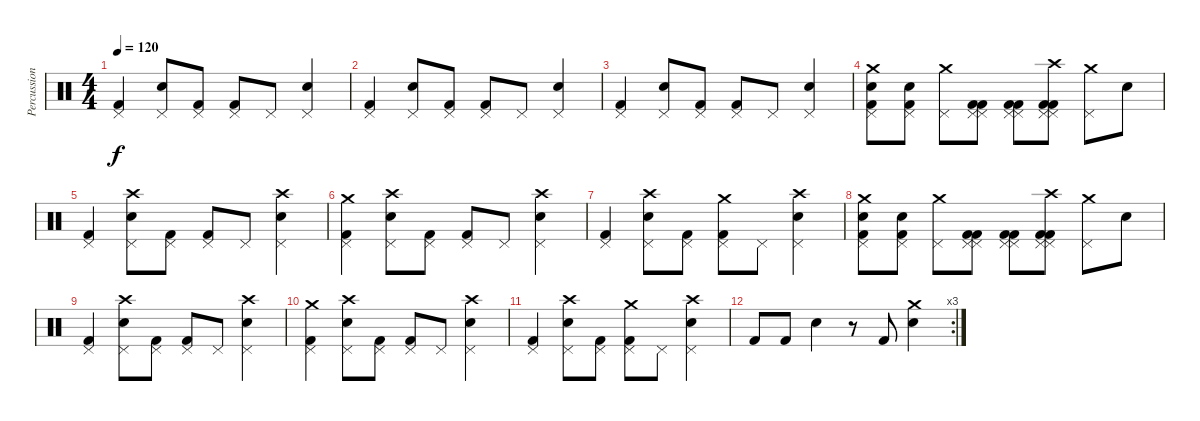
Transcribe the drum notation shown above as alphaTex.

\track ("Percussion" "Percussion") {instrument percussion}
\staff {score}
\articulation defaults
\ts (4 4)
\tempo 120
\clef neutral
\ks c
("Pedal Hi-Hat (hit)" "Kick (hit) 2").4{dy f} ("Pedal Hi-Hat (hit)" "Electric Snare (hit)").8 ("Pedal Hi-Hat (hit)" "Kick (hit) 2").8 ("Pedal Hi-Hat (hit)" "Kick (hit) 2").8 "Pedal Hi-Hat (hit)".8 ("Pedal Hi-Hat (hit)" "Electric Snare (hit)").4 |
("Pedal Hi-Hat (hit)" "Kick (hit) 2").4 ("Pedal Hi-Hat (hit)" "Electric Snare (hit)").8 ("Pedal Hi-Hat (hit)" "Kick (hit) 2").8 ("Pedal Hi-Hat (hit)" "Kick (hit) 2").8 "Pedal Hi-Hat (hit)".8 ("Pedal Hi-Hat (hit)" "Electric Snare (hit)").4 |
("Pedal Hi-Hat (hit)" "Kick (hit) 2").4 ("Pedal Hi-Hat (hit)" "Electric Snare (hit)").8 ("Pedal Hi-Hat (hit)" "Kick (hit) 2").8 ("Pedal Hi-Hat (hit)" "Kick (hit) 2").8 "Pedal Hi-Hat (hit)".8 ("Pedal Hi-Hat (hit)" "Electric Snare (hit)").4 |
("Pedal Hi-Hat (hit)" "Crash medium (hit)" "Electric Snare (hit)" "Kick (hit) 2").8 ("Pedal Hi-Hat (hit)" "Electric Snare (hit)" "Kick (hit) 2").8 ("Pedal Hi-Hat (hit)" "Crash medium (hit)").8 ("Pedal Hi-Hat (hit)" "Pedal Hi-Hat (hit)" "Kick (hit) 2" "Kick (hit) 2").8 ("Pedal Hi-Hat (hit)" "Pedal Hi-Hat (hit)" "Kick (hit) 2" "Kick (hit) 2").8 ("Pedal Hi-Hat (hit)" "Crash high (hit)" "Pedal Hi-Hat (hit)" "Kick (hit) 2" "Kick (hit) 2").8 ("Pedal Hi-Hat (hit)" "Crash medium (hit)").8 "Snare (hit)"{x}.8 |
("Pedal Hi-Hat (hit)" "Kick (hit) 2").4 ("Pedal Hi-Hat (hit)" "Crash high (hit)" "Electric Snare (hit)").8 ("Pedal Hi-Hat (hit)" "Kick (hit) 2").8 ("Pedal Hi-Hat (hit)" "Kick (hit) 2").8 "Pedal Hi-Hat (hit)".8 ("Pedal Hi-Hat (hit)" "Electric Snare (hit)" "Crash high (hit)").4 |
("Pedal Hi-Hat (hit)" "Crash medium (hit)" "Kick (hit) 2").4 ("Pedal Hi-Hat (hit)" "Crash high (hit)" "Electric Snare (hit)").8 ("Pedal Hi-Hat (hit)" "Kick (hit) 2").8 ("Pedal Hi-Hat (hit)" "Kick (hit) 2").8 "Pedal Hi-Hat (hit)".8 ("Pedal Hi-Hat (hit)" "Electric Snare (hit)" "Crash high (hit)").4 |
("Pedal Hi-Hat (hit)" "Kick (hit) 2").4 ("Pedal Hi-Hat (hit)" "Crash high (hit)" "Electric Snare (hit)").8 ("Pedal Hi-Hat (hit)" "Kick (hit) 2").8 ("Pedal Hi-Hat (hit)" "Crash medium (hit)" "Kick (hit) 2").8 "Pedal Hi-Hat (hit)".8 ("Pedal Hi-Hat (hit)" "Electric Snare (hit)" "Crash high (hit)").4 |
("Pedal Hi-Hat (hit)" "Crash medium (hit)" "Electric Snare (hit)" "Kick (hit) 2").8 ("Pedal Hi-Hat (hit)" "Electric Snare (hit)" "Kick (hit) 2").8 ("Pedal Hi-Hat (hit)" "Crash medium (hit)").8 ("Pedal Hi-Hat (hit)" "Pedal Hi-Hat (hit)" "Kick (hit) 2" "Kick (hit) 2").8 ("Pedal Hi-Hat (hit)" "Pedal Hi-Hat (hit)" "Kick (hit) 2" "Kick (hit) 2").8 ("Pedal Hi-Hat (hit)" "Crash high (hit)" "Pedal Hi-Hat (hit)" "Kick (hit) 2" "Kick (hit) 2").8 ("Pedal Hi-Hat (hit)" "Crash medium (hit)").8 "Snare (hit)"{x}.8 |
("Pedal Hi-Hat (hit)" "Kick (hit) 2").4 ("Pedal Hi-Hat (hit)" "Crash high (hit)" "Electric Snare (hit)").8 ("Pedal Hi-Hat (hit)" "Kick (hit) 2").8 ("Pedal Hi-Hat (hit)" "Kick (hit) 2").8 "Pedal Hi-Hat (hit)".8 ("Pedal Hi-Hat (hit)" "Electric Snare (hit)" "Crash high (hit)").4 |
("Pedal Hi-Hat (hit)" "Crash medium (hit)" "Kick (hit) 2").4 ("Pedal Hi-Hat (hit)" "Crash high (hit)" "Electric Snare (hit)").8 ("Pedal Hi-Hat (hit)" "Kick (hit) 2").8 ("Pedal Hi-Hat (hit)" "Kick (hit) 2").8 "Pedal Hi-Hat (hit)".8 ("Pedal Hi-Hat (hit)" "Electric Snare (hit)" "Crash high (hit)").4 |
("Pedal Hi-Hat (hit)" "Kick (hit) 2").4 ("Pedal Hi-Hat (hit)" "Crash high (hit)" "Electric Snare (hit)").8 ("Pedal Hi-Hat (hit)" "Kick (hit) 2").8 ("Pedal Hi-Hat (hit)" "Crash medium (hit)" "Kick (hit) 2").8 "Pedal Hi-Hat (hit)".8 ("Pedal Hi-Hat (hit)" "Electric Snare (hit)" "Crash high (hit)").4 |
\rc 3 "Kick (hit) 2".8 "Kick (hit) 2".8 "Electric Snare (hit)".4
r.8 "Kick (hit) 2".8 ("Crash medium (hit)" "Electric Snare (hit)").4
